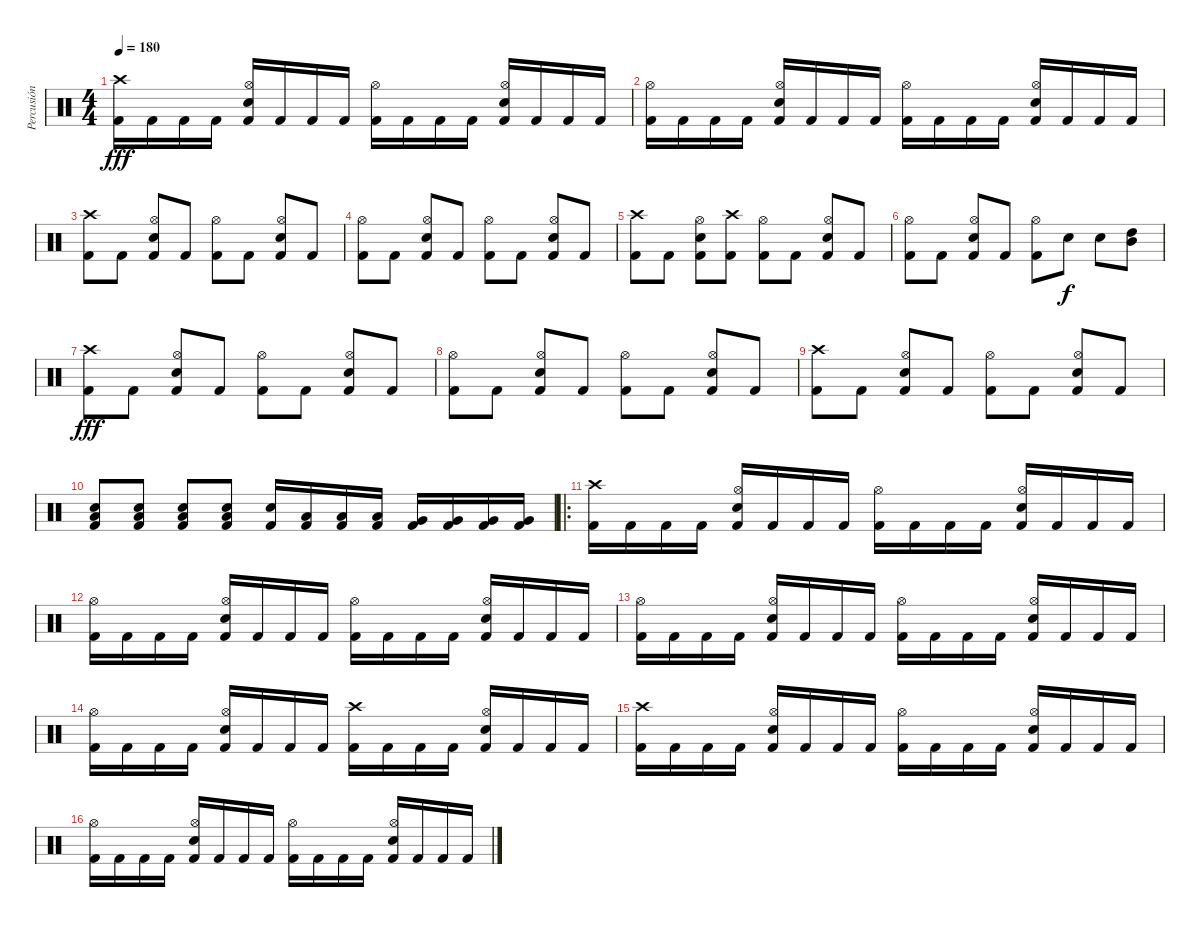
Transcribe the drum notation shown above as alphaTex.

\track ("Percusión" "Percusión") {instrument percussion}
\staff {score}
\articulation defaults
\ts (4 4)
\tempo 180
\clef neutral
\ks c
("Crash high (hit)" "Kick (hit) 2").16{dy fff} "Kick (hit) 2".16 "Kick (hit) 2".16 "Kick (hit) 2".16 ("Hi-Hat (open)" "Electric Snare (hit)" "Kick (hit) 2").16 "Kick (hit) 2".16 "Kick (hit) 2".16 "Kick (hit) 2".16 ("Hi-Hat (open)" "Kick (hit) 2").16 "Kick (hit) 2".16 "Kick (hit) 2".16 "Kick (hit) 2".16 ("Hi-Hat (open)" "Electric Snare (hit)" "Kick (hit) 2").16 "Kick (hit) 2".16 "Kick (hit) 2".16 "Kick (hit) 2".16 |
("Hi-Hat (open)" "Kick (hit) 2").16 "Kick (hit) 2".16 "Kick (hit) 2".16 "Kick (hit) 2".16 ("Hi-Hat (open)" "Electric Snare (hit)" "Kick (hit) 2").16 "Kick (hit) 2".16 "Kick (hit) 2".16 "Kick (hit) 2".16 ("Hi-Hat (open)" "Kick (hit) 2").16 "Kick (hit) 2".16 "Kick (hit) 2".16 "Kick (hit) 2".16 ("Hi-Hat (open)" "Electric Snare (hit)" "Kick (hit) 2").16 "Kick (hit) 2".16 "Kick (hit) 2".16 "Kick (hit) 2".16 |
("Crash high (hit)" "Kick (hit) 2").8 "Kick (hit) 2".8 ("Hi-Hat (open)" "Electric Snare (hit)" "Kick (hit) 2").8 "Kick (hit) 2".8 ("Hi-Hat (open)" "Kick (hit) 2").8 "Kick (hit) 2".8 ("Hi-Hat (open)" "Electric Snare (hit)" "Kick (hit) 2").8 "Kick (hit) 2".8 |
("Hi-Hat (open)" "Kick (hit) 2").8 "Kick (hit) 2".8 ("Hi-Hat (open)" "Electric Snare (hit)" "Kick (hit) 2").8 "Kick (hit) 2".8 ("Hi-Hat (open)" "Kick (hit) 2").8 "Kick (hit) 2".8 ("Hi-Hat (open)" "Electric Snare (hit)" "Kick (hit) 2").8 "Kick (hit) 2".8 |
("Crash high (hit)" "Kick (hit) 2").8 "Kick (hit) 2".8 ("Hi-Hat (open)" "Electric Snare (hit)" "Kick (hit) 2").8 ("Crash high (hit)" "Kick (hit) 2").8 ("Hi-Hat (open)" "Kick (hit) 2").8 "Kick (hit) 2".8 ("Hi-Hat (open)" "Electric Snare (hit)" "Kick (hit) 2").8 "Kick (hit) 2".8 |
("Hi-Hat (open)" "Kick (hit) 2").8 "Kick (hit) 2".8 ("Hi-Hat (open)" "Electric Snare (hit)" "Kick (hit) 2").8 "Kick (hit) 2".8 ("Hi-Hat (open)" "Kick (hit) 2").8 "Electric Snare (hit)".8{dy f} "Electric Snare (hit)".8 ("Mid Tom (hit)" "High Tom (hit)").8 |
("Crash high (hit)" "Kick (hit) 2").8{dy fff} "Kick (hit) 2".8 ("Hi-Hat (open)" "Electric Snare (hit)" "Kick (hit) 2").8 "Kick (hit) 2".8 ("Hi-Hat (open)" "Kick (hit) 2").8 "Kick (hit) 2".8 ("Hi-Hat (open)" "Electric Snare (hit)" "Kick (hit) 2").8 "Kick (hit) 2".8 |
("Hi-Hat (open)" "Kick (hit) 2").8 "Kick (hit) 2".8 ("Hi-Hat (open)" "Electric Snare (hit)" "Kick (hit) 2").8 "Kick (hit) 2".8 ("Hi-Hat (open)" "Kick (hit) 2").8 "Kick (hit) 2".8 ("Hi-Hat (open)" "Electric Snare (hit)" "Kick (hit) 2").8 "Kick (hit) 2".8 |
("Crash high (hit)" "Kick (hit) 2").8 "Kick (hit) 2".8 ("Hi-Hat (open)" "Electric Snare (hit)" "Kick (hit) 2").8 "Kick (hit) 2".8 ("Hi-Hat (open)" "Kick (hit) 2").8 "Kick (hit) 2".8 ("Hi-Hat (open)" "Electric Snare (hit)" "Kick (hit) 2").8 "Kick (hit) 2".8 |
("Low Tom (hit)" "Electric Snare (hit)" "Kick (hit) 2").8 ("Low Tom (hit)" "Electric Snare (hit)" "Kick (hit) 2").8 ("Low Tom (hit)" "Electric Snare (hit)" "Kick (hit) 2").8 ("Low Tom (hit)" "Electric Snare (hit)" "Kick (hit) 2").8 ("Electric Snare (hit)" "Kick (hit) 2").16 ("Low Tom (hit)" "Kick (hit) 2").16 ("Low Tom (hit)" "Kick (hit) 2").16 ("Low Tom (hit)" "Kick (hit) 2").16 ("Very Low Tom (hit)" "Kick (hit) 2").16 ("Very Low Tom (hit)" "Kick (hit) 2").16 ("Very Low Tom (hit)" "Kick (hit) 2").16 ("Very Low Tom (hit)" "Kick (hit) 2").16 |
\ro
("Crash high (hit)" "Kick (hit) 2").16 "Kick (hit) 2".16 "Kick (hit) 2".16 "Kick (hit) 2".16 ("Hi-Hat (open)" "Electric Snare (hit)" "Kick (hit) 2").16 "Kick (hit) 2".16 "Kick (hit) 2".16 "Kick (hit) 2".16 ("Hi-Hat (open)" "Kick (hit) 2").16 "Kick (hit) 2".16 "Kick (hit) 2".16 "Kick (hit) 2".16 ("Hi-Hat (open)" "Electric Snare (hit)" "Kick (hit) 2").16 "Kick (hit) 2".16 "Kick (hit) 2".16 "Kick (hit) 2".16 |
("Hi-Hat (open)" "Kick (hit) 2").16 "Kick (hit) 2".16 "Kick (hit) 2".16 "Kick (hit) 2".16 ("Hi-Hat (open)" "Electric Snare (hit)" "Kick (hit) 2").16 "Kick (hit) 2".16 "Kick (hit) 2".16 "Kick (hit) 2".16 ("Hi-Hat (open)" "Kick (hit) 2").16 "Kick (hit) 2".16 "Kick (hit) 2".16 "Kick (hit) 2".16 ("Hi-Hat (open)" "Electric Snare (hit)" "Kick (hit) 2").16 "Kick (hit) 2".16 "Kick (hit) 2".16 "Kick (hit) 2".16 |
("Hi-Hat (open)" "Kick (hit) 2").16 "Kick (hit) 2".16 "Kick (hit) 2".16 "Kick (hit) 2".16 ("Hi-Hat (open)" "Electric Snare (hit)" "Kick (hit) 2").16 "Kick (hit) 2".16 "Kick (hit) 2".16 "Kick (hit) 2".16 ("Hi-Hat (open)" "Kick (hit) 2").16 "Kick (hit) 2".16 "Kick (hit) 2".16 "Kick (hit) 2".16 ("Hi-Hat (open)" "Electric Snare (hit)" "Kick (hit) 2").16 "Kick (hit) 2".16 "Kick (hit) 2".16 "Kick (hit) 2".16 |
("Hi-Hat (open)" "Kick (hit) 2").16 "Kick (hit) 2".16 "Kick (hit) 2".16 "Kick (hit) 2".16 ("Hi-Hat (open)" "Electric Snare (hit)" "Kick (hit) 2").16 "Kick (hit) 2".16 "Kick (hit) 2".16 "Kick (hit) 2".16 ("Crash high (hit)" "Kick (hit) 2").16 "Kick (hit) 2".16 "Kick (hit) 2".16 "Kick (hit) 2".16 ("Hi-Hat (open)" "Electric Snare (hit)" "Kick (hit) 2").16 "Kick (hit) 2".16 "Kick (hit) 2".16 "Kick (hit) 2".16 |
("Crash high (hit)" "Kick (hit) 2").16 "Kick (hit) 2".16 "Kick (hit) 2".16 "Kick (hit) 2".16 ("Hi-Hat (open)" "Electric Snare (hit)" "Kick (hit) 2").16 "Kick (hit) 2".16 "Kick (hit) 2".16 "Kick (hit) 2".16 ("Hi-Hat (open)" "Kick (hit) 2").16 "Kick (hit) 2".16 "Kick (hit) 2".16 "Kick (hit) 2".16 ("Hi-Hat (open)" "Electric Snare (hit)" "Kick (hit) 2").16 "Kick (hit) 2".16 "Kick (hit) 2".16 "Kick (hit) 2".16 |
("Hi-Hat (open)" "Kick (hit) 2").16 "Kick (hit) 2".16 "Kick (hit) 2".16 "Kick (hit) 2".16 ("Hi-Hat (open)" "Electric Snare (hit)" "Kick (hit) 2").16 "Kick (hit) 2".16 "Kick (hit) 2".16 "Kick (hit) 2".16 ("Hi-Hat (open)" "Kick (hit) 2").16 "Kick (hit) 2".16 "Kick (hit) 2".16 "Kick (hit) 2".16 ("Hi-Hat (open)" "Electric Snare (hit)" "Kick (hit) 2").16 "Kick (hit) 2".16 "Kick (hit) 2".16 "Kick (hit) 2".16
